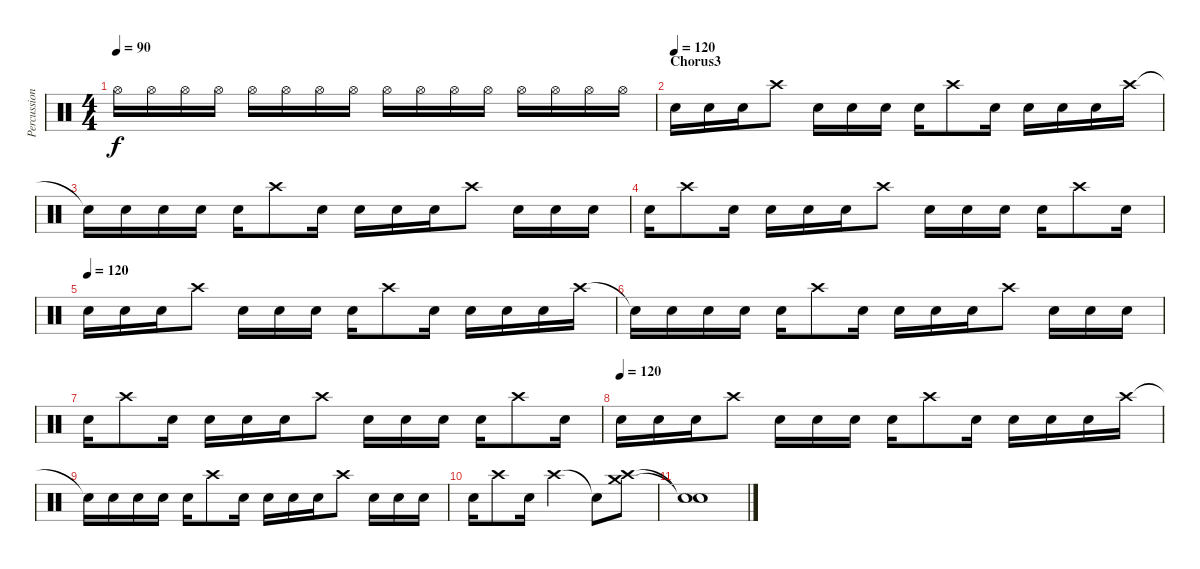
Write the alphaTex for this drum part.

\track ("Percussion" "Percussion") {instrument percussion}
\staff {score}
\articulation defaults
\ts (4 4)
\tempo 90
\clef neutral
\ks c "Hi-Hat (open)".16{dy f} "Hi-Hat (open)".16 "Hi-Hat (open)".16 "Hi-Hat (open)".16 "Hi-Hat (open)".16 "Hi-Hat (open)".16 "Hi-Hat (open)".16 "Hi-Hat (open)".16 "Hi-Hat (open)".16 "Hi-Hat (open)".16 "Hi-Hat (open)".16 "Hi-Hat (open)".16 "Hi-Hat (open)".16 "Hi-Hat (open)".16 "Hi-Hat (open)".16 "Hi-Hat (open)".16
|
\section ("" "Chorus3")
\tempo (120)
"Electric Snare (hit)".16 "Electric Snare (hit)".16 "Electric Snare (hit)".16 "Crash high (hit)".8 "Electric Snare (hit)".16 "Electric Snare (hit)".16 "Electric Snare (hit)".16 "Electric Snare (hit)".16 "Crash high (hit)".8 "Electric Snare (hit)".16 "Electric Snare (hit)".16 "Electric Snare (hit)".16 "Electric Snare (hit)".16 "Crash high (hit)".16 |
"Snare (hit)"{t}.16 "Electric Snare (hit)".16 "Electric Snare (hit)".16 "Electric Snare (hit)".16 "Electric Snare (hit)".16 "Crash high (hit)".8 "Electric Snare (hit)".16 "Electric Snare (hit)".16 "Electric Snare (hit)".16 "Electric Snare (hit)".16 "Crash high (hit)".8 "Electric Snare (hit)".16 "Electric Snare (hit)".16 "Electric Snare (hit)".16 |
"Electric Snare (hit)".16 "Crash high (hit)".8 "Electric Snare (hit)".16 "Electric Snare (hit)".16 "Electric Snare (hit)".16 "Electric Snare (hit)".16 "Crash high (hit)".8 "Electric Snare (hit)".16 "Electric Snare (hit)".16 "Electric Snare (hit)".16 "Electric Snare (hit)".16 "Crash high (hit)".8 "Electric Snare (hit)".16 |
\tempo (120)
"Electric Snare (hit)".16 "Electric Snare (hit)".16 "Electric Snare (hit)".16 "Crash high (hit)".8 "Electric Snare (hit)".16 "Electric Snare (hit)".16 "Electric Snare (hit)".16 "Electric Snare (hit)".16 "Crash high (hit)".8 "Electric Snare (hit)".16 "Electric Snare (hit)".16 "Electric Snare (hit)".16 "Electric Snare (hit)".16 "Crash high (hit)".16 |
"Snare (hit)"{t}.16 "Electric Snare (hit)".16 "Electric Snare (hit)".16 "Electric Snare (hit)".16 "Electric Snare (hit)".16 "Crash high (hit)".8 "Electric Snare (hit)".16 "Electric Snare (hit)".16 "Electric Snare (hit)".16 "Electric Snare (hit)".16 "Crash high (hit)".8 "Electric Snare (hit)".16 "Electric Snare (hit)".16 "Electric Snare (hit)".16 |
"Electric Snare (hit)".16 "Crash high (hit)".8 "Electric Snare (hit)".16 "Electric Snare (hit)".16 "Electric Snare (hit)".16 "Electric Snare (hit)".16 "Crash high (hit)".8 "Electric Snare (hit)".16 "Electric Snare (hit)".16 "Electric Snare (hit)".16 "Electric Snare (hit)".16 "Crash high (hit)".8 "Electric Snare (hit)".16 |
\tempo (120)
"Electric Snare (hit)".16 "Electric Snare (hit)".16 "Electric Snare (hit)".16 "Crash high (hit)".8 "Electric Snare (hit)".16 "Electric Snare (hit)".16 "Electric Snare (hit)".16 "Electric Snare (hit)".16 "Crash high (hit)".8 "Electric Snare (hit)".16 "Electric Snare (hit)".16 "Electric Snare (hit)".16 "Electric Snare (hit)".16 "Crash high (hit)".16 |
"Snare (hit)"{t}.16 "Electric Snare (hit)".16 "Electric Snare (hit)".16 "Electric Snare (hit)".16 "Electric Snare (hit)".16 "Crash high (hit)".8 "Electric Snare (hit)".16 "Electric Snare (hit)".16 "Electric Snare (hit)".16 "Electric Snare (hit)".16 "Crash high (hit)".8 "Electric Snare (hit)".16 "Electric Snare (hit)".16 "Electric Snare (hit)".16 |
"Electric Snare (hit)".16 "Crash high (hit)".8 "Electric Snare (hit)".16 "Crash high (hit)".2 "Snare (hit)"{t}.8 ("Crash high (hit)" "Crash medium (hit)").8 |
("Snare (hit)"{t} "Snare (hit)"{t}).1
